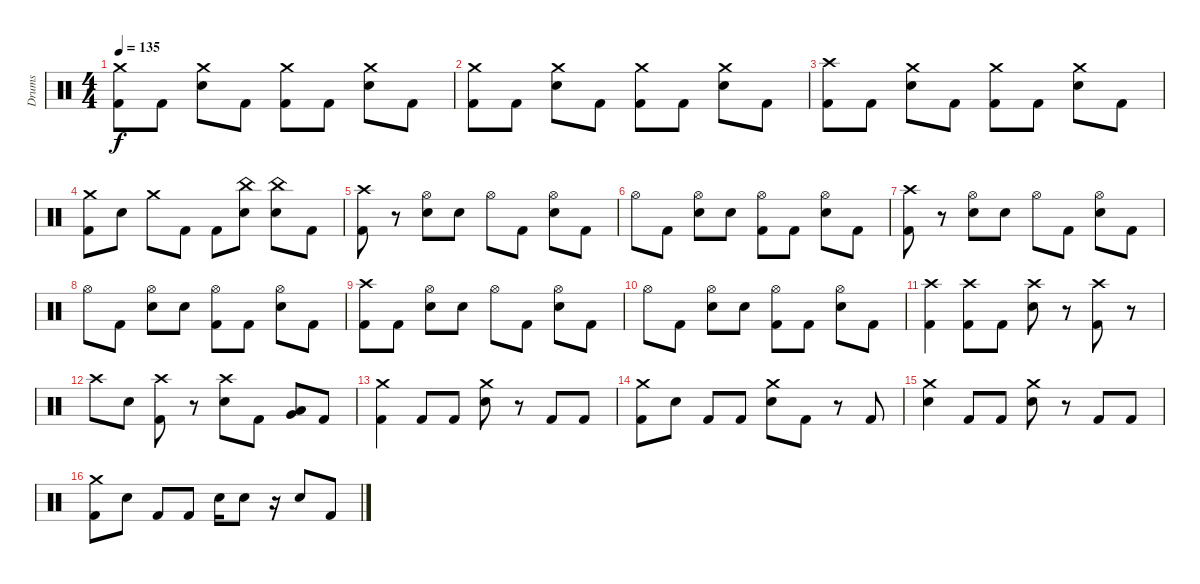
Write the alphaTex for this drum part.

\track ("Drums" "Drums") {instrument percussion}
\staff {score}
\articulation defaults
\ts (4 4)
\tempo 135
\clef neutral
\ks c
("Crash medium (hit)" "Kick (hit) 2").8{dy f} "Kick (hit) 2".8 ("Crash medium (hit)" "Snare (hit) 2").8 "Kick (hit) 2".8 ("Crash medium (hit)" "Kick (hit) 2").8 "Kick (hit) 2".8 ("Crash medium (hit)" "Snare (hit) 2").8 "Kick (hit) 2".8 |
("Crash medium (hit)" "Kick (hit) 2").8 "Kick (hit) 2".8 ("Crash medium (hit)" "Snare (hit) 2").8 "Kick (hit) 2".8 ("Crash medium (hit)" "Kick (hit) 2").8 "Kick (hit) 2".8 ("Crash medium (hit)" "Snare (hit) 2").8 "Kick (hit) 2".8 |
("Crash high (hit)" "Kick (hit) 2").8 "Kick (hit) 2".8 ("Crash medium (hit)" "Snare (hit) 2").8 "Kick (hit) 2".8 ("Crash medium (hit)" "Kick (hit) 2").8 "Kick (hit) 2".8 ("Crash medium (hit)" "Snare (hit) 2").8 "Kick (hit) 2".8 |
("Crash medium (hit)" "Kick (hit) 2").8 "Snare (hit) 2".8 "Crash medium (hit)".8 "Kick (hit) 2".8 "Kick (hit) 2".8 ("China (hit)" "Snare (hit) 2").8 ("China (hit)" "Snare (hit) 2").8 "Kick (hit) 2".8 |
("Crash high (hit)" "Kick (hit) 2").8 r.8 ("Hi-Hat (open)" "Snare (hit) 2").8 "Snare (hit) 2".8 "Hi-Hat (open)".8 "Kick (hit) 2".8 ("Hi-Hat (open)" "Snare (hit) 2").8 "Kick (hit) 2".8 |
"Hi-Hat (open)".8 "Kick (hit) 2".8 ("Hi-Hat (open)" "Snare (hit) 2").8 "Snare (hit) 2".8 ("Hi-Hat (open)" "Kick (hit) 2").8 "Kick (hit) 2".8 ("Hi-Hat (open)" "Snare (hit) 2").8 "Kick (hit) 2".8 |
("Crash high (hit)" "Kick (hit) 2").8 r.8 ("Hi-Hat (open)" "Snare (hit) 2").8 "Snare (hit) 2".8 "Hi-Hat (open)".8 "Kick (hit) 2".8 ("Hi-Hat (open)" "Snare (hit) 2").8 "Kick (hit) 2".8 |
"Hi-Hat (open)".8 "Kick (hit) 2".8 ("Hi-Hat (open)" "Snare (hit) 2").8 "Snare (hit) 2".8 ("Hi-Hat (open)" "Kick (hit) 2").8 "Kick (hit) 2".8 ("Hi-Hat (open)" "Snare (hit) 2").8 "Kick (hit) 2".8 |
("Crash high (hit)" "Kick (hit) 2").8 "Kick (hit) 2".8 ("Hi-Hat (open)" "Snare (hit) 2").8 "Snare (hit) 2".8 "Hi-Hat (open)".8 "Kick (hit) 2".8 ("Hi-Hat (open)" "Snare (hit) 2").8 "Kick (hit) 2".8 |
"Hi-Hat (open)".8 "Kick (hit) 2".8 ("Hi-Hat (open)" "Snare (hit) 2").8 "Snare (hit) 2".8 ("Hi-Hat (open)" "Kick (hit) 2").8 "Kick (hit) 2".8 ("Hi-Hat (open)" "Snare (hit) 2").8 "Kick (hit) 2".8 |
("Crash high (hit)" "Kick (hit) 2").4 ("Crash high (hit)" "Kick (hit) 2").8 "Kick (hit) 2".8 ("Crash high (hit)" "Snare (hit) 2").8 r.8 ("Crash high (hit)" "Kick (hit) 2").8 r.8 |
"Crash high (hit)".8 "Snare (hit) 2".8 ("Crash high (hit)" "Kick (hit) 2").8 r.8 ("Crash high (hit)" "Snare (hit) 2").8 "Kick (hit) 2".8 ("Low Tom (hit)" "Very Low Tom (hit)").8 "Kick (hit) 2".8 |
("Crash medium (hit)" "Kick (hit) 2").4 "Kick (hit) 2".8 "Kick (hit) 2".8 ("Crash medium (hit)" "Snare (hit) 2").8 r.8 "Kick (hit) 2".8 "Kick (hit) 2".8 |
("Crash medium (hit)" "Kick (hit) 2").8 "Snare (hit) 2".8 "Kick (hit) 2".8 "Kick (hit) 2".8 ("Crash medium (hit)" "Snare (hit) 2").8 "Kick (hit) 2".8 r.8 "Kick (hit) 2".8 |
("Crash medium (hit)" "Snare (hit) 2").4 "Kick (hit) 2".8 "Kick (hit) 2".8 ("Crash medium (hit)" "Snare (hit) 2").8 r.8 "Kick (hit) 2".8 "Kick (hit) 2".8 |
("Crash medium (hit)" "Kick (hit) 2").8 "Snare (hit) 2".8 "Kick (hit) 2".8 "Kick (hit) 2".8 "Snare (hit) 2".16 "Snare (hit) 2".8 r.16 "Snare (hit) 2".8 "Kick (hit) 2".8
